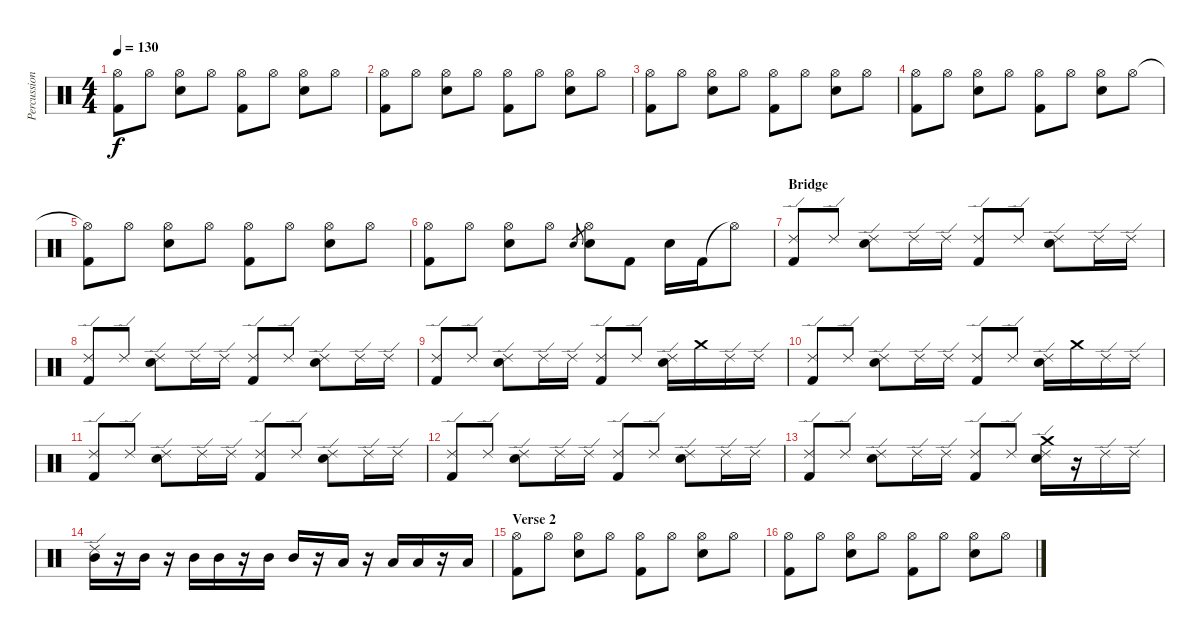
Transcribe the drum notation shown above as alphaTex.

\track ("Percussion" "Percussion") {instrument percussion}
\staff {score}
\articulation defaults
\ts (4 4)
\tempo 130
\clef neutral
\ks c
("Hi-Hat (open)" "Kick (hit) 2").8{dy f} "Hi-Hat (open)".8 ("Hi-Hat (open)" "Snare (hit) 2").8 "Hi-Hat (open)".8 ("Hi-Hat (open)" "Kick (hit) 2").8 "Hi-Hat (open)".8 ("Hi-Hat (open)" "Snare (hit) 2").8 "Hi-Hat (open)".8 |
("Hi-Hat (open)" "Kick (hit) 2").8 "Hi-Hat (open)".8 ("Hi-Hat (open)" "Snare (hit) 2").8 "Hi-Hat (open)".8 ("Hi-Hat (open)" "Kick (hit) 2").8 "Hi-Hat (open)".8 ("Hi-Hat (open)" "Snare (hit) 2").8 "Hi-Hat (open)".8 |
("Hi-Hat (open)" "Kick (hit) 2").8 "Hi-Hat (open)".8 ("Hi-Hat (open)" "Snare (hit) 2").8 "Hi-Hat (open)".8 ("Hi-Hat (open)" "Kick (hit) 2").8 "Hi-Hat (open)".8 ("Hi-Hat (open)" "Snare (hit) 2").8 "Hi-Hat (open)".8 |
("Hi-Hat (open)" "Kick (hit) 2").8 "Hi-Hat (open)".8 ("Hi-Hat (open)" "Snare (hit) 2").8 "Hi-Hat (open)".8 ("Hi-Hat (open)" "Kick (hit) 2").8 "Hi-Hat (open)".8 ("Hi-Hat (open)" "Snare (hit) 2").8 "Hi-Hat (open)".8 |
("Hi-Hat (open)"{t} "Kick (hit) 2").8 "Hi-Hat (open)".8 ("Hi-Hat (open)" "Snare (hit) 2").8 "Hi-Hat (open)".8 ("Hi-Hat (open)" "Kick (hit) 2").8 "Hi-Hat (open)".8 ("Hi-Hat (open)" "Snare (hit) 2").8 "Hi-Hat (open)".8 |
("Hi-Hat (open)" "Kick (hit) 2").8 "Hi-Hat (open)".8 ("Hi-Hat (open)" "Snare (hit) 2").8 "Hi-Hat (open)".8 "Snare (hit) 2".8{gr} ("Hi-Hat (open)" "Snare (hit) 2").8 "Kick (hit) 2".8 "Snare (hit) 2".16 "Kick (hit) 2".16 "Hi-Hat (open)"{t}.8 |
\section ("" "Bridge")
("Ride (edge) 2" "Kick (hit) 2").8 "Ride (edge) 2".8 ("Ride (edge) 2" "Snare (hit) 2").8 "Ride (edge) 2".16 "Ride (edge) 2".16 ("Ride (edge) 2" "Kick (hit) 2").8 "Ride (edge) 2".8 ("Ride (edge) 2" "Snare (hit) 2").8 "Ride (edge) 2".16 "Ride (edge) 2".16 |
("Ride (edge) 2" "Kick (hit) 2").8 "Ride (edge) 2".8 ("Ride (edge) 2" "Snare (hit) 2").8 "Ride (edge) 2".16 "Ride (edge) 2".16 ("Ride (edge) 2" "Kick (hit) 2").8 "Ride (edge) 2".8 ("Ride (edge) 2" "Snare (hit) 2").8 "Ride (edge) 2".16 "Ride (edge) 2".16 |
("Ride (edge) 2" "Kick (hit) 2").8 "Ride (edge) 2".8 ("Ride (edge) 2" "Snare (hit) 2").8 "Ride (edge) 2".16 "Ride (edge) 2".16 ("Ride (edge) 2" "Kick (hit) 2").8 "Ride (edge) 2".8 ("Ride (edge) 2" "Snare (hit) 2").16 "Crash medium (hit)".16 "Ride (edge) 2".16 "Ride (edge) 2".16 |
("Ride (edge) 2" "Kick (hit) 2").8 "Ride (edge) 2".8 ("Ride (edge) 2" "Snare (hit) 2").8 "Ride (edge) 2".16 "Ride (edge) 2".16 ("Ride (edge) 2" "Kick (hit) 2").8 "Ride (edge) 2".8 ("Ride (edge) 2" "Snare (hit) 2").16 "Crash medium (hit)".16 "Ride (edge) 2".16 "Ride (edge) 2".16 |
("Ride (edge) 2" "Kick (hit) 2").8 "Ride (edge) 2".8 ("Ride (edge) 2" "Snare (hit) 2").8 "Ride (edge) 2".16 "Ride (edge) 2".16 ("Ride (edge) 2" "Kick (hit) 2").8 "Ride (edge) 2".8 ("Ride (edge) 2" "Snare (hit) 2").8 "Ride (edge) 2".16 "Ride (edge) 2".16 |
("Ride (edge) 2" "Kick (hit) 2").8 "Ride (edge) 2".8 ("Ride (edge) 2" "Snare (hit) 2").8 "Ride (edge) 2".16 "Ride (edge) 2".16 ("Ride (edge) 2" "Kick (hit) 2").8 "Ride (edge) 2".8 ("Ride (edge) 2" "Snare (hit) 2").8 "Ride (edge) 2".16 "Ride (edge) 2".16 |
("Ride (edge) 2" "Kick (hit) 2").8 "Ride (edge) 2".8 ("Ride (edge) 2" "Snare (hit) 2").8 "Ride (edge) 2".16 "Ride (edge) 2".16 ("Ride (edge) 2" "Kick (hit) 2").8 "Ride (edge) 2".8 ("Crash medium (hit)" "Ride (edge) 2" "Snare (hit) 2").16 r.16 "Ride (edge) 2".16 "Ride (edge) 2".16 |
("Ride (edge) 2" "Mid Tom (hit)").16 r.16 "Mid Tom (hit)".16 r.16 "Mid Tom (hit)".16 "Mid Tom (hit)".16 r.16 "Mid Tom (hit)".16 "Mid Tom (hit)".16 r.16 "Low Tom (hit)".16 r.16 "Low Tom (hit)".16 "Low Tom (hit)".16 r.16 "Low Tom (hit)".16 |
\section ("" "Verse 2")
("Hi-Hat (open)" "Kick (hit) 2").8 "Hi-Hat (open)".8 ("Hi-Hat (open)" "Snare (hit) 2").8 "Hi-Hat (open)".8 ("Hi-Hat (open)" "Kick (hit) 2").8 "Hi-Hat (open)".8 ("Hi-Hat (open)" "Snare (hit) 2").8 "Hi-Hat (open)".8 |
("Hi-Hat (open)" "Kick (hit) 2").8 "Hi-Hat (open)".8 ("Hi-Hat (open)" "Snare (hit) 2").8 "Hi-Hat (open)".8 ("Hi-Hat (open)" "Kick (hit) 2").8 "Hi-Hat (open)".8 ("Hi-Hat (open)" "Snare (hit) 2").8 "Hi-Hat (open)".8
